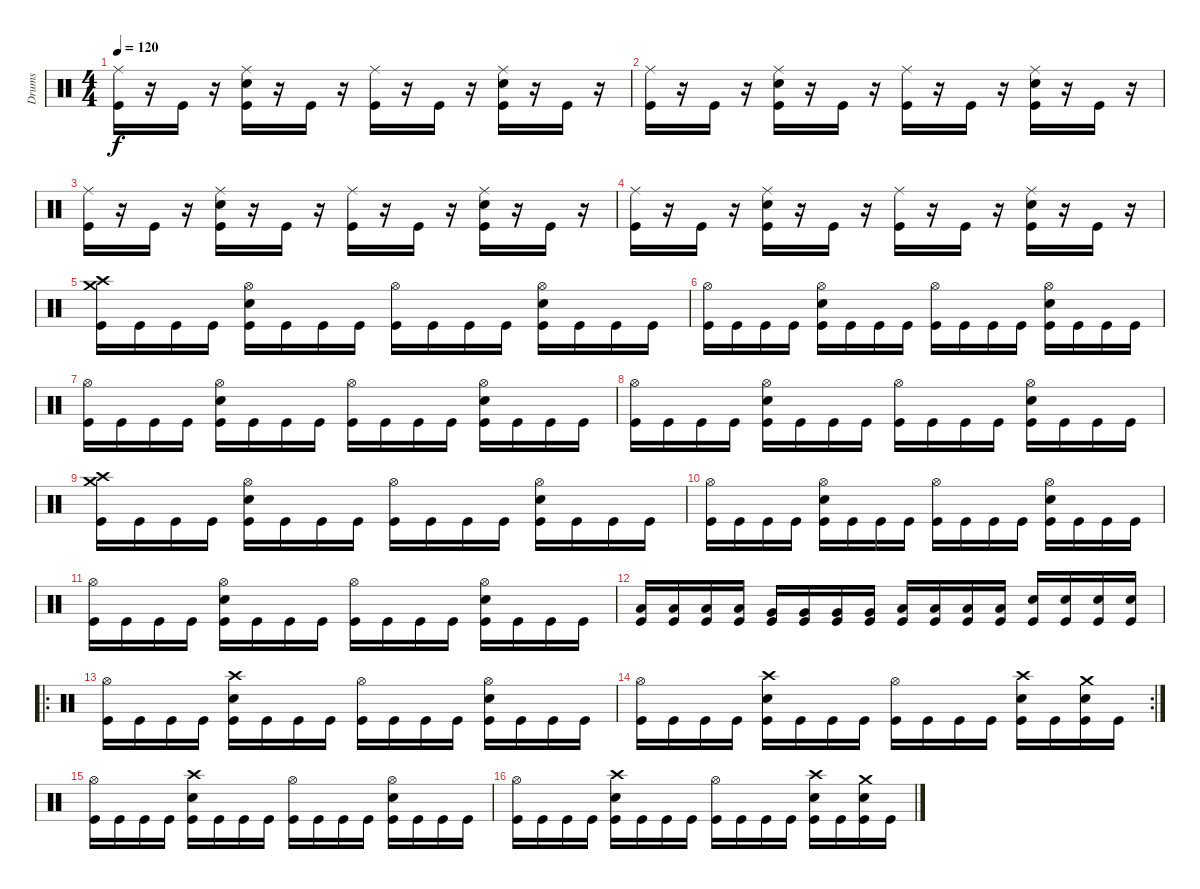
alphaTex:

\track ("Drums" "Drums") {instrument percussion}
\staff {score}
\articulation defaults
\ts (4 4)
\tempo 120
\clef neutral
\ks c
("Ride (middle)" "Kick (hit)").16{dy f} r.16 "Kick (hit)".16 r.16 ("Electric Snare (hit)" "Ride (middle)" "Kick (hit)").16 r.16 "Kick (hit)".16 r.16 ("Ride (middle)" "Kick (hit)").16 r.16 "Kick (hit)".16 r.16 ("Electric Snare (hit)" "Ride (middle)" "Kick (hit)").16 r.16 "Kick (hit)".16 r.16 |
("Ride (middle)" "Kick (hit)").16 r.16 "Kick (hit)".16 r.16 ("Electric Snare (hit)" "Ride (middle)" "Kick (hit)").16 r.16 "Kick (hit)".16 r.16 ("Ride (middle)" "Kick (hit)").16 r.16 "Kick (hit)".16 r.16 ("Electric Snare (hit)" "Ride (middle)" "Kick (hit)").16 r.16 "Kick (hit)".16 r.16 |
("Ride (middle)" "Kick (hit)").16 r.16 "Kick (hit)".16 r.16 ("Electric Snare (hit)" "Ride (middle)" "Kick (hit)").16 r.16 "Kick (hit)".16 r.16 ("Ride (middle)" "Kick (hit)").16 r.16 "Kick (hit)".16 r.16 ("Electric Snare (hit)" "Ride (middle)" "Kick (hit)").16 r.16 "Kick (hit)".16 r.16 |
("Ride (middle)" "Kick (hit)").16 r.16 "Kick (hit)".16 r.16 ("Electric Snare (hit)" "Ride (middle)" "Kick (hit)").16 r.16 "Kick (hit)".16 r.16 ("Ride (middle)" "Kick (hit)").16 r.16 "Kick (hit)".16 r.16 ("Electric Snare (hit)" "Ride (middle)" "Kick (hit)").16 r.16 "Kick (hit)".16 r.16 |
("Crash medium (hit)" "Crash high (hit)" "Kick (hit)").16 "Kick (hit)".16 "Kick (hit)".16 "Kick (hit)".16 ("Electric Snare (hit)" "Hi-Hat (open)" "Kick (hit)").16 "Kick (hit)".16 "Kick (hit)".16 "Kick (hit)".16 ("Hi-Hat (open)" "Kick (hit)").16 "Kick (hit)".16 "Kick (hit)".16 "Kick (hit)".16 ("Electric Snare (hit)" "Hi-Hat (open)" "Kick (hit)").16 "Kick (hit)".16 "Kick (hit)".16 "Kick (hit)".16 |
("Hi-Hat (open)" "Kick (hit)").16 "Kick (hit)".16 "Kick (hit)".16 "Kick (hit)".16 ("Electric Snare (hit)" "Hi-Hat (open)" "Kick (hit)").16 "Kick (hit)".16 "Kick (hit)".16 "Kick (hit)".16 ("Hi-Hat (open)" "Kick (hit)").16 "Kick (hit)".16 "Kick (hit)".16 "Kick (hit)".16 ("Electric Snare (hit)" "Hi-Hat (open)" "Kick (hit)").16 "Kick (hit)".16 "Kick (hit)".16 "Kick (hit)".16 |
("Hi-Hat (open)" "Kick (hit)").16 "Kick (hit)".16 "Kick (hit)".16 "Kick (hit)".16 ("Electric Snare (hit)" "Hi-Hat (open)" "Kick (hit)").16 "Kick (hit)".16 "Kick (hit)".16 "Kick (hit)".16 ("Hi-Hat (open)" "Kick (hit)").16 "Kick (hit)".16 "Kick (hit)".16 "Kick (hit)".16 ("Electric Snare (hit)" "Hi-Hat (open)" "Kick (hit)").16 "Kick (hit)".16 "Kick (hit)".16 "Kick (hit)".16 |
("Hi-Hat (open)" "Kick (hit)").16 "Kick (hit)".16 "Kick (hit)".16 "Kick (hit)".16 ("Electric Snare (hit)" "Hi-Hat (open)" "Kick (hit)").16 "Kick (hit)".16 "Kick (hit)".16 "Kick (hit)".16 ("Hi-Hat (open)" "Kick (hit)").16 "Kick (hit)".16 "Kick (hit)".16 "Kick (hit)".16 ("Electric Snare (hit)" "Hi-Hat (open)" "Kick (hit)").16 "Kick (hit)".16 "Kick (hit)".16 "Kick (hit)".16 |
("Crash medium (hit)" "Crash high (hit)" "Kick (hit)").16 "Kick (hit)".16 "Kick (hit)".16 "Kick (hit)".16 ("Electric Snare (hit)" "Hi-Hat (open)" "Kick (hit)").16 "Kick (hit)".16 "Kick (hit)".16 "Kick (hit)".16 ("Hi-Hat (open)" "Kick (hit)").16 "Kick (hit)".16 "Kick (hit)".16 "Kick (hit)".16 ("Electric Snare (hit)" "Hi-Hat (open)" "Kick (hit)").16 "Kick (hit)".16 "Kick (hit)".16 "Kick (hit)".16 |
("Hi-Hat (open)" "Kick (hit)").16 "Kick (hit)".16 "Kick (hit)".16 "Kick (hit)".16 ("Electric Snare (hit)" "Hi-Hat (open)" "Kick (hit)").16 "Kick (hit)".16 "Kick (hit)".16 "Kick (hit)".16 ("Hi-Hat (open)" "Kick (hit)").16 "Kick (hit)".16 "Kick (hit)".16 "Kick (hit)".16 ("Electric Snare (hit)" "Hi-Hat (open)" "Kick (hit)").16 "Kick (hit)".16 "Kick (hit)".16 "Kick (hit)".16 |
("Hi-Hat (open)" "Kick (hit)").16 "Kick (hit)".16 "Kick (hit)".16 "Kick (hit)".16 ("Electric Snare (hit)" "Hi-Hat (open)" "Kick (hit)").16 "Kick (hit)".16 "Kick (hit)".16 "Kick (hit)".16 ("Hi-Hat (open)" "Kick (hit)").16 "Kick (hit)".16 "Kick (hit)".16 "Kick (hit)".16 ("Electric Snare (hit)" "Hi-Hat (open)" "Kick (hit)").16 "Kick (hit)".16 "Kick (hit)".16 "Kick (hit)".16 |
("Low Tom (hit)" "Kick (hit)").16 ("Low Tom (hit)" "Kick (hit)").16 ("Low Tom (hit)" "Kick (hit)").16 ("Low Tom (hit)" "Kick (hit)").16 ("Very Low Tom (hit)" "Kick (hit)").16 ("Very Low Tom (hit)" "Kick (hit)").16 ("Very Low Tom (hit)" "Kick (hit)").16 ("Very Low Tom (hit)" "Kick (hit)").16 ("Low Floor Tom (hit)" "Kick (hit)").16 ("Low Floor Tom (hit)" "Kick (hit)").16 ("Low Floor Tom (hit)" "Kick (hit)").16 ("Low Floor Tom (hit)" "Kick (hit)").16 ("Electric Snare (hit)" "Kick (hit)").16 ("Electric Snare (hit)" "Kick (hit)").16 ("Electric Snare (hit)" "Kick (hit)").16 ("Electric Snare (hit)" "Kick (hit)").16 |
\ro
("Hi-Hat (open)" "Kick (hit)").16 "Kick (hit)".16 "Kick (hit)".16 "Kick (hit)".16 ("Electric Snare (hit)" "Crash high (hit)" "Kick (hit)").16 "Kick (hit)".16 "Kick (hit)".16 "Kick (hit)".16 ("Hi-Hat (open)" "Kick (hit)").16 "Kick (hit)".16 "Kick (hit)".16 "Kick (hit)".16 ("Hi-Hat (open)" "Electric Snare (hit)" "Kick (hit)").16 "Kick (hit)".16 "Kick (hit)".16 "Kick (hit)".16 |
\rc 2
("Hi-Hat (open)" "Kick (hit)").16 "Kick (hit)".16 "Kick (hit)".16 "Kick (hit)".16 ("Electric Snare (hit)" "Crash high (hit)" "Kick (hit)").16 "Kick (hit)".16 "Kick (hit)".16 "Kick (hit)".16 ("Hi-Hat (open)" "Kick (hit)").16 "Kick (hit)".16 "Kick (hit)".16 "Kick (hit)".16 ("Electric Snare (hit)" "Crash high (hit)" "Kick (hit)").16 "Kick (hit)".16 ("Electric Snare (hit)" "Crash medium (hit)" "Kick (hit)").16 "Kick (hit)".16 |
("Hi-Hat (open)" "Kick (hit)").16 "Kick (hit)".16 "Kick (hit)".16 "Kick (hit)".16 ("Electric Snare (hit)" "Crash high (hit)" "Kick (hit)").16 "Kick (hit)".16 "Kick (hit)".16 "Kick (hit)".16 ("Hi-Hat (open)" "Kick (hit)").16 "Kick (hit)".16 "Kick (hit)".16 "Kick (hit)".16 ("Hi-Hat (open)" "Electric Snare (hit)" "Kick (hit)").16 "Kick (hit)".16 "Kick (hit)".16 "Kick (hit)".16 |
("Hi-Hat (open)" "Kick (hit)").16 "Kick (hit)".16 "Kick (hit)".16 "Kick (hit)".16 ("Electric Snare (hit)" "Crash high (hit)" "Kick (hit)").16 "Kick (hit)".16 "Kick (hit)".16 "Kick (hit)".16 ("Hi-Hat (open)" "Kick (hit)").16 "Kick (hit)".16 "Kick (hit)".16 "Kick (hit)".16 ("Electric Snare (hit)" "Crash high (hit)" "Kick (hit)").16 "Kick (hit)".16 ("Electric Snare (hit)" "Crash medium (hit)" "Kick (hit)").16 "Kick (hit)".16
